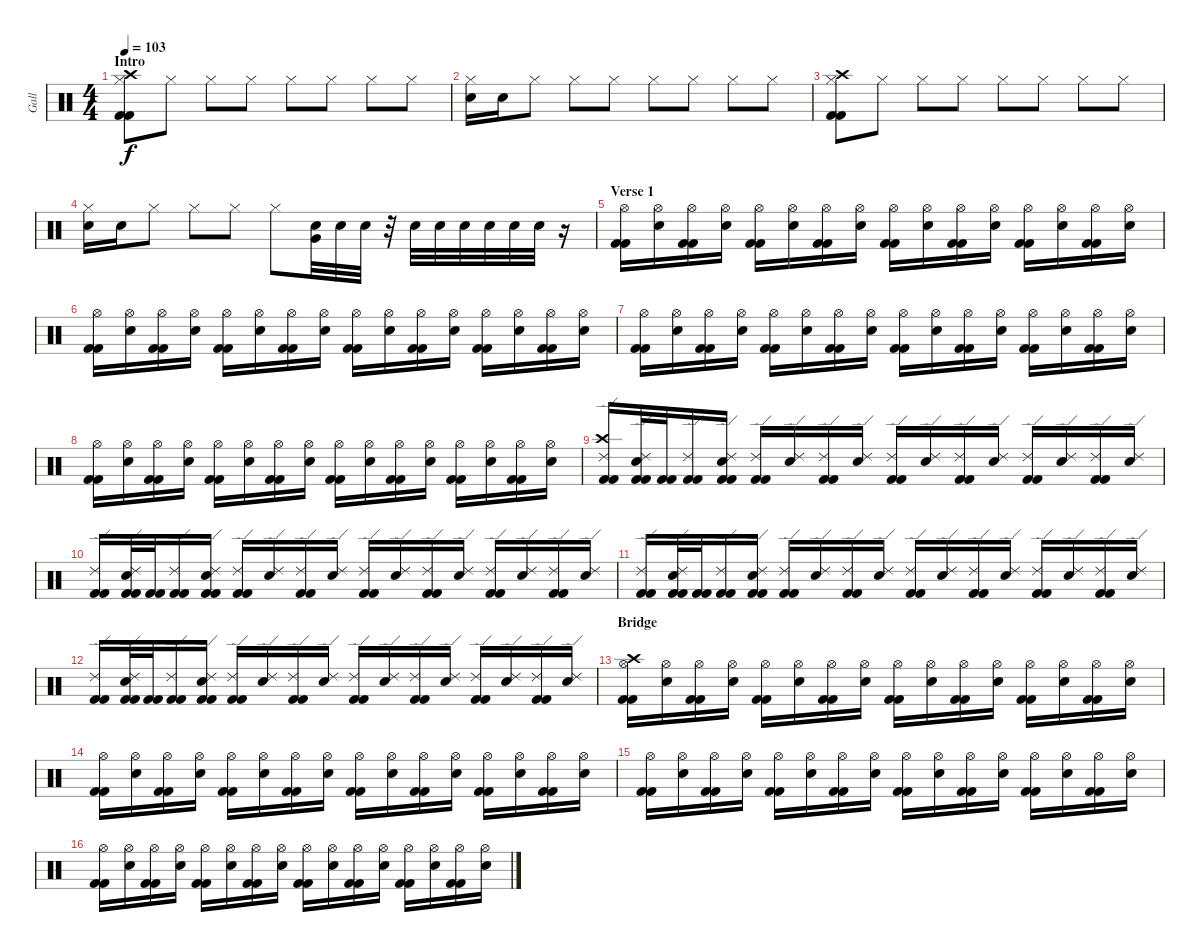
\track ("Gall" "Gall") {instrument percussion}
\staff {score}
\articulation defaults
\ts (4 4)
\section ("" "Intro")
\tempo 103
\clef neutral
\ks c
("Kick (hit) 2" "Kick (hit) 2" "Hi-Hat (closed)" "Crash high (hit)").8{dy f} "Hi-Hat (closed)".8 "Hi-Hat (closed)".8 "Hi-Hat (closed)".8 "Hi-Hat (closed)".8 "Hi-Hat (closed)".8 "Hi-Hat (closed)".8 "Hi-Hat (closed)".8 |
("Snare (hit) 2" "Hi-Hat (closed)").16 "Snare (hit) 2".16 "Hi-Hat (closed)".8 "Hi-Hat (closed)".8 "Hi-Hat (closed)".8 "Hi-Hat (closed)".8 "Hi-Hat (closed)".8 "Hi-Hat (closed)".8 "Hi-Hat (closed)".8 |
("Kick (hit) 2" "Kick (hit) 2" "Hi-Hat (closed)" "Crash high (hit)").8 "Hi-Hat (closed)".8 "Hi-Hat (closed)".8 "Hi-Hat (closed)".8 "Hi-Hat (closed)".8 "Hi-Hat (closed)".8 "Hi-Hat (closed)".8 "Hi-Hat (closed)".8 |
("Snare (hit) 2" "Hi-Hat (closed)").16 "Snare (hit) 2".16 "Hi-Hat (closed)".8 "Hi-Hat (closed)".8 "Hi-Hat (closed)".8 "Hi-Hat (closed)".8 ("Snare (hit) 2" "Very Low Tom (hit)").32 "Snare (hit) 2".32 "Snare (hit) 2".32 r.32 "Snare (hit) 2".32 "Snare (hit) 2".32 "Snare (hit) 2".32 "Snare (hit) 2".32 "Snare (hit) 2".32 "Snare (hit) 2".32 r.16 |
\section ("" "Verse 1")
("Kick (hit) 2" "Kick (hit) 2" "Hi-Hat (open)").16 ("Snare (hit) 2" "Hi-Hat (open)").16 ("Kick (hit) 2" "Kick (hit) 2" "Hi-Hat (open)").16 ("Snare (hit) 2" "Hi-Hat (open)").16 ("Kick (hit) 2" "Kick (hit) 2" "Hi-Hat (open)").16 ("Snare (hit) 2" "Hi-Hat (open)").16 ("Kick (hit) 2" "Kick (hit) 2" "Hi-Hat (open)").16 ("Snare (hit) 2" "Hi-Hat (open)").16 ("Kick (hit) 2" "Kick (hit) 2" "Hi-Hat (open)").16 ("Snare (hit) 2" "Hi-Hat (open)").16 ("Kick (hit) 2" "Kick (hit) 2" "Hi-Hat (open)").16 ("Snare (hit) 2" "Hi-Hat (open)").16 ("Kick (hit) 2" "Kick (hit) 2" "Hi-Hat (open)").16 ("Snare (hit) 2" "Hi-Hat (open)").16 ("Kick (hit) 2" "Kick (hit) 2" "Hi-Hat (open)").16 ("Snare (hit) 2" "Hi-Hat (open)").16 |
("Kick (hit) 2" "Kick (hit) 2" "Hi-Hat (open)").16 ("Snare (hit) 2" "Hi-Hat (open)").16 ("Kick (hit) 2" "Kick (hit) 2" "Hi-Hat (open)").16 ("Snare (hit) 2" "Hi-Hat (open)").16 ("Kick (hit) 2" "Kick (hit) 2" "Hi-Hat (open)").16 ("Snare (hit) 2" "Hi-Hat (open)").16 ("Kick (hit) 2" "Kick (hit) 2" "Hi-Hat (open)").16 ("Snare (hit) 2" "Hi-Hat (open)").16 ("Kick (hit) 2" "Kick (hit) 2" "Hi-Hat (open)").16 ("Snare (hit) 2" "Hi-Hat (open)").16 ("Kick (hit) 2" "Kick (hit) 2" "Hi-Hat (open)").16 ("Snare (hit) 2" "Hi-Hat (open)").16 ("Kick (hit) 2" "Kick (hit) 2" "Hi-Hat (open)").16 ("Snare (hit) 2" "Hi-Hat (open)").16 ("Kick (hit) 2" "Kick (hit) 2" "Hi-Hat (open)").16 ("Snare (hit) 2" "Hi-Hat (open)").16 |
("Kick (hit) 2" "Kick (hit) 2" "Hi-Hat (open)").16 ("Snare (hit) 2" "Hi-Hat (open)").16 ("Kick (hit) 2" "Kick (hit) 2" "Hi-Hat (open)").16 ("Snare (hit) 2" "Hi-Hat (open)").16 ("Kick (hit) 2" "Kick (hit) 2" "Hi-Hat (open)").16 ("Snare (hit) 2" "Hi-Hat (open)").16 ("Kick (hit) 2" "Kick (hit) 2" "Hi-Hat (open)").16 ("Snare (hit) 2" "Hi-Hat (open)").16 ("Kick (hit) 2" "Kick (hit) 2" "Hi-Hat (open)").16 ("Snare (hit) 2" "Hi-Hat (open)").16 ("Kick (hit) 2" "Kick (hit) 2" "Hi-Hat (open)").16 ("Snare (hit) 2" "Hi-Hat (open)").16 ("Kick (hit) 2" "Kick (hit) 2" "Hi-Hat (open)").16 ("Snare (hit) 2" "Hi-Hat (open)").16 ("Kick (hit) 2" "Kick (hit) 2" "Hi-Hat (open)").16 ("Snare (hit) 2" "Hi-Hat (open)").16 |
("Kick (hit) 2" "Kick (hit) 2" "Hi-Hat (open)").16 ("Snare (hit) 2" "Hi-Hat (open)").16 ("Kick (hit) 2" "Kick (hit) 2" "Hi-Hat (open)").16 ("Snare (hit) 2" "Hi-Hat (open)").16 ("Kick (hit) 2" "Kick (hit) 2" "Hi-Hat (open)").16 ("Snare (hit) 2" "Hi-Hat (open)").16 ("Kick (hit) 2" "Kick (hit) 2" "Hi-Hat (open)").16 ("Snare (hit) 2" "Hi-Hat (open)").16 ("Kick (hit) 2" "Kick (hit) 2" "Hi-Hat (open)").16 ("Snare (hit) 2" "Hi-Hat (open)").16 ("Kick (hit) 2" "Kick (hit) 2" "Hi-Hat (open)").16 ("Snare (hit) 2" "Hi-Hat (open)").16 ("Kick (hit) 2" "Kick (hit) 2" "Hi-Hat (open)").16 ("Snare (hit) 2" "Hi-Hat (open)").16 ("Kick (hit) 2" "Kick (hit) 2" "Hi-Hat (open)").16 ("Snare (hit) 2" "Hi-Hat (open)").16 |
("Kick (hit) 2" "Kick (hit) 2" "Ride (edge) 2" "Crash high (hit)").16 ("Kick (hit) 2" "Kick (hit) 2" "Snare (hit) 2" "Ride (edge) 2").32 ("Kick (hit) 2" "Kick (hit) 2").32 ("Kick (hit) 2" "Kick (hit) 2" "Ride (edge) 2").16 ("Kick (hit) 2" "Kick (hit) 2" "Snare (hit) 2" "Ride (edge) 2").16 ("Kick (hit) 2" "Kick (hit) 2" "Ride (edge) 2").16 ("Snare (hit) 2" "Ride (edge) 2").16 ("Kick (hit) 2" "Kick (hit) 2" "Ride (edge) 2").16 ("Snare (hit) 2" "Ride (edge) 2").16 ("Kick (hit) 2" "Kick (hit) 2" "Ride (edge) 2").16 ("Snare (hit) 2" "Ride (edge) 2").16 ("Kick (hit) 2" "Kick (hit) 2" "Ride (edge) 2").16 ("Snare (hit) 2" "Ride (edge) 2").16 ("Kick (hit) 2" "Kick (hit) 2" "Ride (edge) 2").16 ("Snare (hit) 2" "Ride (edge) 2").16 ("Kick (hit) 2" "Kick (hit) 2" "Ride (edge) 2").16 ("Snare (hit) 2" "Ride (edge) 2").16 |
("Kick (hit) 2" "Kick (hit) 2" "Ride (edge) 2").16 ("Kick (hit) 2" "Kick (hit) 2" "Snare (hit) 2" "Ride (edge) 2").32 ("Kick (hit) 2" "Kick (hit) 2").32 ("Kick (hit) 2" "Kick (hit) 2" "Ride (edge) 2").16 ("Kick (hit) 2" "Kick (hit) 2" "Snare (hit) 2" "Ride (edge) 2").16 ("Kick (hit) 2" "Kick (hit) 2" "Ride (edge) 2").16 ("Snare (hit) 2" "Ride (edge) 2").16 ("Kick (hit) 2" "Kick (hit) 2" "Ride (edge) 2").16 ("Snare (hit) 2" "Ride (edge) 2").16 ("Kick (hit) 2" "Kick (hit) 2" "Ride (edge) 2").16 ("Snare (hit) 2" "Ride (edge) 2").16 ("Kick (hit) 2" "Kick (hit) 2" "Ride (edge) 2").16 ("Snare (hit) 2" "Ride (edge) 2").16 ("Kick (hit) 2" "Kick (hit) 2" "Ride (edge) 2").16 ("Snare (hit) 2" "Ride (edge) 2").16 ("Kick (hit) 2" "Kick (hit) 2" "Ride (edge) 2").16 ("Snare (hit) 2" "Ride (edge) 2").16 |
("Kick (hit) 2" "Kick (hit) 2" "Ride (edge) 2").16 ("Kick (hit) 2" "Kick (hit) 2" "Snare (hit) 2" "Ride (edge) 2").32 ("Kick (hit) 2" "Kick (hit) 2").32 ("Kick (hit) 2" "Kick (hit) 2" "Ride (edge) 2").16 ("Kick (hit) 2" "Kick (hit) 2" "Snare (hit) 2" "Ride (edge) 2").16 ("Kick (hit) 2" "Kick (hit) 2" "Ride (edge) 2").16 ("Snare (hit) 2" "Ride (edge) 2").16 ("Kick (hit) 2" "Kick (hit) 2" "Ride (edge) 2").16 ("Snare (hit) 2" "Ride (edge) 2").16 ("Kick (hit) 2" "Kick (hit) 2" "Ride (edge) 2").16 ("Snare (hit) 2" "Ride (edge) 2").16 ("Kick (hit) 2" "Kick (hit) 2" "Ride (edge) 2").16 ("Snare (hit) 2" "Ride (edge) 2").16 ("Kick (hit) 2" "Kick (hit) 2" "Ride (edge) 2").16 ("Snare (hit) 2" "Ride (edge) 2").16 ("Kick (hit) 2" "Kick (hit) 2" "Ride (edge) 2").16 ("Snare (hit) 2" "Ride (edge) 2").16 |
("Kick (hit) 2" "Kick (hit) 2" "Ride (edge) 2").16 ("Kick (hit) 2" "Kick (hit) 2" "Snare (hit) 2" "Ride (edge) 2").32 ("Kick (hit) 2" "Kick (hit) 2").32 ("Kick (hit) 2" "Kick (hit) 2" "Ride (edge) 2").16 ("Kick (hit) 2" "Kick (hit) 2" "Snare (hit) 2" "Ride (edge) 2").16 ("Kick (hit) 2" "Kick (hit) 2" "Ride (edge) 2").16 ("Snare (hit) 2" "Ride (edge) 2").16 ("Kick (hit) 2" "Kick (hit) 2" "Ride (edge) 2").16 ("Snare (hit) 2" "Ride (edge) 2").16 ("Kick (hit) 2" "Kick (hit) 2" "Ride (edge) 2").16 ("Snare (hit) 2" "Ride (edge) 2").16 ("Kick (hit) 2" "Kick (hit) 2" "Ride (edge) 2").16 ("Snare (hit) 2" "Ride (edge) 2").16 ("Kick (hit) 2" "Kick (hit) 2" "Ride (edge) 2").16 ("Snare (hit) 2" "Ride (edge) 2").16 ("Kick (hit) 2" "Kick (hit) 2" "Ride (edge) 2").16 ("Snare (hit) 2" "Ride (edge) 2").16 |
\section ("" "Bridge")
("Kick (hit) 2" "Kick (hit) 2" "Hi-Hat (open)" "Crash high (hit)").16 ("Snare (hit) 2" "Hi-Hat (open)").16 ("Kick (hit) 2" "Kick (hit) 2" "Hi-Hat (open)").16 ("Snare (hit) 2" "Hi-Hat (open)").16 ("Kick (hit) 2" "Kick (hit) 2" "Hi-Hat (open)").16 ("Snare (hit) 2" "Hi-Hat (open)").16 ("Kick (hit) 2" "Kick (hit) 2" "Hi-Hat (open)").16 ("Snare (hit) 2" "Hi-Hat (open)").16 ("Kick (hit) 2" "Kick (hit) 2" "Hi-Hat (open)").16 ("Snare (hit) 2" "Hi-Hat (open)").16 ("Kick (hit) 2" "Kick (hit) 2" "Hi-Hat (open)").16 ("Snare (hit) 2" "Hi-Hat (open)").16 ("Kick (hit) 2" "Kick (hit) 2" "Hi-Hat (open)").16 ("Snare (hit) 2" "Hi-Hat (open)").16 ("Kick (hit) 2" "Kick (hit) 2" "Hi-Hat (open)").16 ("Snare (hit) 2" "Hi-Hat (open)").16 |
("Kick (hit) 2" "Kick (hit) 2" "Hi-Hat (open)").16 ("Snare (hit) 2" "Hi-Hat (open)").16 ("Kick (hit) 2" "Kick (hit) 2" "Hi-Hat (open)").16 ("Snare (hit) 2" "Hi-Hat (open)").16 ("Kick (hit) 2" "Kick (hit) 2" "Hi-Hat (open)").16 ("Snare (hit) 2" "Hi-Hat (open)").16 ("Kick (hit) 2" "Kick (hit) 2" "Hi-Hat (open)").16 ("Snare (hit) 2" "Hi-Hat (open)").16 ("Kick (hit) 2" "Kick (hit) 2" "Hi-Hat (open)").16 ("Snare (hit) 2" "Hi-Hat (open)").16 ("Kick (hit) 2" "Kick (hit) 2" "Hi-Hat (open)").16 ("Snare (hit) 2" "Hi-Hat (open)").16 ("Kick (hit) 2" "Kick (hit) 2" "Hi-Hat (open)").16 ("Snare (hit) 2" "Hi-Hat (open)").16 ("Kick (hit) 2" "Kick (hit) 2" "Hi-Hat (open)").16 ("Snare (hit) 2" "Hi-Hat (open)").16 |
("Kick (hit) 2" "Kick (hit) 2" "Hi-Hat (open)").16 ("Snare (hit) 2" "Hi-Hat (open)").16 ("Kick (hit) 2" "Kick (hit) 2" "Hi-Hat (open)").16 ("Snare (hit) 2" "Hi-Hat (open)").16 ("Kick (hit) 2" "Kick (hit) 2" "Hi-Hat (open)").16 ("Snare (hit) 2" "Hi-Hat (open)").16 ("Kick (hit) 2" "Kick (hit) 2" "Hi-Hat (open)").16 ("Snare (hit) 2" "Hi-Hat (open)").16 ("Kick (hit) 2" "Kick (hit) 2" "Hi-Hat (open)").16 ("Snare (hit) 2" "Hi-Hat (open)").16 ("Kick (hit) 2" "Kick (hit) 2" "Hi-Hat (open)").16 ("Snare (hit) 2" "Hi-Hat (open)").16 ("Kick (hit) 2" "Kick (hit) 2" "Hi-Hat (open)").16 ("Snare (hit) 2" "Hi-Hat (open)").16 ("Kick (hit) 2" "Kick (hit) 2" "Hi-Hat (open)").16 ("Snare (hit) 2" "Hi-Hat (open)").16 |
("Kick (hit) 2" "Kick (hit) 2" "Hi-Hat (open)").16 ("Snare (hit) 2" "Hi-Hat (open)").16 ("Kick (hit) 2" "Kick (hit) 2" "Hi-Hat (open)").16 ("Snare (hit) 2" "Hi-Hat (open)").16 ("Kick (hit) 2" "Kick (hit) 2" "Hi-Hat (open)").16 ("Snare (hit) 2" "Hi-Hat (open)").16 ("Kick (hit) 2" "Kick (hit) 2" "Hi-Hat (open)").16 ("Snare (hit) 2" "Hi-Hat (open)").16 ("Kick (hit) 2" "Kick (hit) 2" "Hi-Hat (open)").16 ("Snare (hit) 2" "Hi-Hat (open)").16 ("Kick (hit) 2" "Kick (hit) 2" "Hi-Hat (open)").16 ("Snare (hit) 2" "Hi-Hat (open)").16 ("Kick (hit) 2" "Kick (hit) 2" "Hi-Hat (open)").16 ("Snare (hit) 2" "Hi-Hat (open)").16 ("Kick (hit) 2" "Kick (hit) 2" "Hi-Hat (open)").16 ("Snare (hit) 2" "Hi-Hat (open)").16
